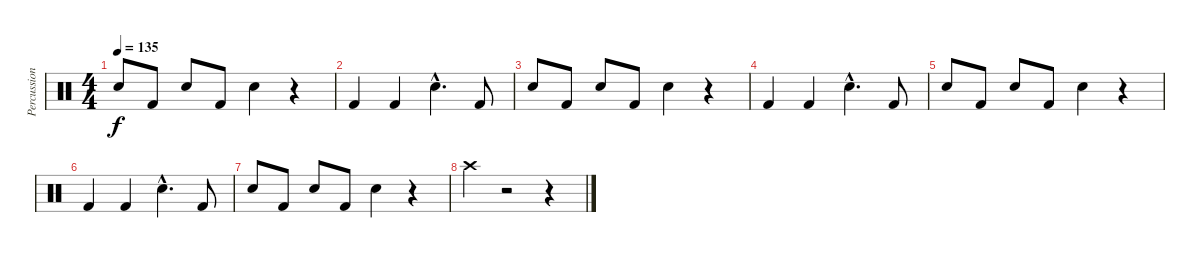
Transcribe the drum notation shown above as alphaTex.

\track ("Percussion1" "Percussion") {instrument percussion}
\staff {score}
\articulation defaults
\ts (4 4)
\tempo 135
\clef neutral
\ks c "Electric Snare (hit)".8{dy f} "Kick (hit) 2".8 "Electric Snare (hit)".8 "Kick (hit) 2".8 "Electric Snare (hit)".4
r.4 |
"Kick (hit) 2".4 "Kick (hit) 2".4 "Electric Snare (hit)"{hac}.4{d} "Kick (hit) 2".8 |
"Electric Snare (hit)".8 "Kick (hit) 2".8 "Electric Snare (hit)".8 "Kick (hit) 2".8 "Electric Snare (hit)".4 r.4 |
"Kick (hit) 2".4 "Kick (hit) 2".4 "Electric Snare (hit)"{hac}.4{d} "Kick (hit) 2".8 |
"Electric Snare (hit)".8 "Kick (hit) 2".8 "Electric Snare (hit)".8 "Kick (hit) 2".8 "Electric Snare (hit)".4 r.4 |
"Kick (hit) 2".4 "Kick (hit) 2".4 "Electric Snare (hit)"{hac}.4{d} "Kick (hit) 2".8 |
"Electric Snare (hit)".8 "Kick (hit) 2".8 "Electric Snare (hit)".8 "Kick (hit) 2".8 "Electric Snare (hit)".4 r.4 |
"Crash high (hit)".4 r.2 r.4
